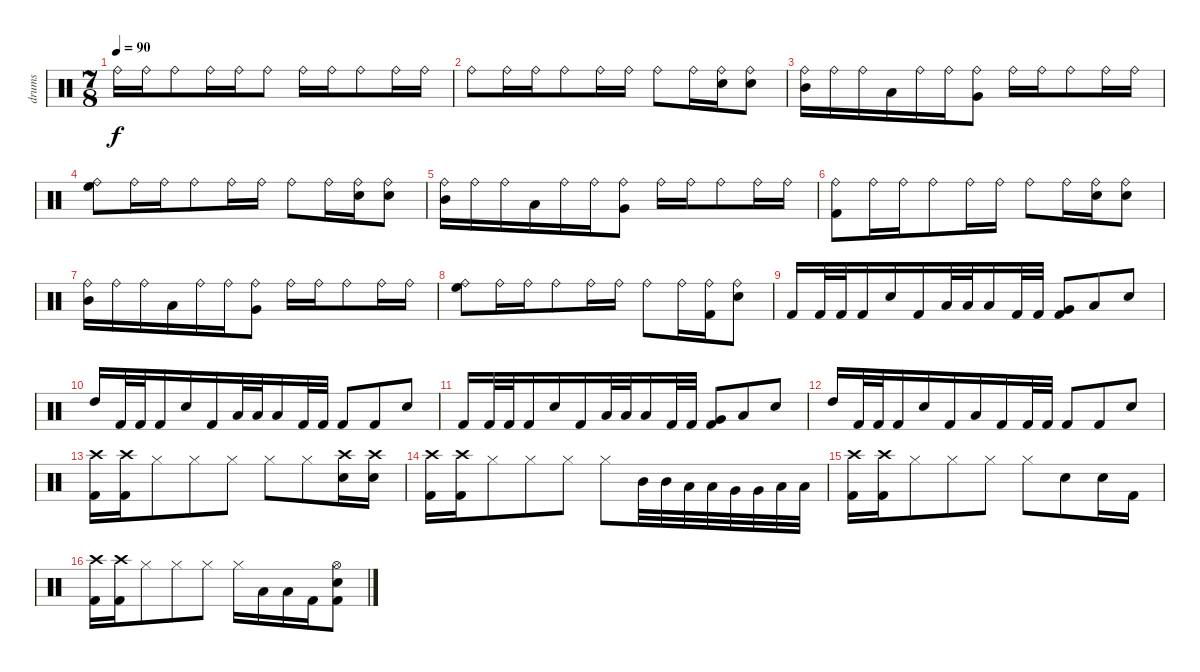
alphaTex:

\track ("drums" "drums") {instrument percussion}
\staff {score}
\articulation defaults
\ts (7 8)
\tempo 90
\clef neutral
\ks c "Ride (bell)".16{dy f} "Ride (bell)".16 "Ride (bell)".8 "Ride (bell)".16 "Ride (bell)".16 "Ride (bell)".8 "Ride (bell)".16 "Ride (bell)".16 "Ride (bell)".8 "Ride (bell)".16 "Ride (bell)".16
|
"Ride (bell)".8 "Ride (bell)".16 "Ride (bell)".16 "Ride (bell)".8 "Ride (bell)".16 "Ride (bell)".16 "Ride (bell)".8 "Ride (bell)".16 ("Ride (bell)" "Electric Snare (hit)").16 ("Ride (bell)" "Electric Snare (hit)").8 |
("Ride (bell)" "Mid Tom (hit)").16 "Ride (bell)".16 "Ride (bell)".16 "Low Tom (hit)".16 "Ride (bell)".16 "Ride (bell)".16 ("Ride (bell)" "Very Low Tom (hit)").8 "Ride (bell)".16 "Ride (bell)".16 "Ride (bell)".8 "Ride (bell)".16 "Ride (bell)".16 |
("Ride (bell)" "High Floor Tom (hit)").8 "Ride (bell)".16 "Ride (bell)".16 "Ride (bell)".8 "Ride (bell)".16 "Ride (bell)".16 "Ride (bell)".8 "Ride (bell)".16 ("Ride (bell)" "Electric Snare (hit)").16 ("Ride (bell)" "Electric Snare (hit)").8 |
("Ride (bell)" "Mid Tom (hit)").16 "Ride (bell)".16 "Ride (bell)".16 "Low Tom (hit)".16 "Ride (bell)".16 "Ride (bell)".16 ("Ride (bell)" "Very Low Tom (hit)").8 "Ride (bell)".16 "Ride (bell)".16 "Ride (bell)".8 "Ride (bell)".16 "Ride (bell)".16 |
("Ride (bell)" "Kick (hit) 2").8 "Ride (bell)".16 "Ride (bell)".16 "Ride (bell)".8 "Ride (bell)".16 "Ride (bell)".16 "Ride (bell)".8 "Ride (bell)".16 ("Ride (bell)" "Electric Snare (hit)").16 ("Ride (bell)" "Electric Snare (hit)").8 |
("Ride (bell)" "Mid Tom (hit)").16 "Ride (bell)".16 "Ride (bell)".16 "Low Tom (hit)".16 "Ride (bell)".16 "Ride (bell)".16 ("Ride (bell)" "Very Low Tom (hit)").8 "Ride (bell)".16 "Ride (bell)".16 "Ride (bell)".8 "Ride (bell)".16 "Ride (bell)".16 |
("Ride (bell)" "High Floor Tom (hit)").8 "Ride (bell)".16 "Ride (bell)".16 "Ride (bell)".8 "Ride (bell)".16 "Ride (bell)".16 "Ride (bell)".8 "Ride (bell)".16 ("Ride (bell)" "Kick (hit) 2").16 ("Ride (bell)" "Electric Snare (hit)").8 |
"Kick (hit) 2".16 "Kick (hit) 2".32 "Kick (hit) 2".32 "Kick (hit) 2".16 "Electric Snare (hit)".16 "Kick (hit) 2".16 "Low Tom (hit)".32 "Low Tom (hit)".32 "Low Tom (hit)".16 "Kick (hit) 2".32 "Kick (hit) 2".32 ("Very Low Tom (hit)" "Kick (hit) 2").8 "Low Floor Tom (hit)".8 "Electric Snare (hit)".8 |
"High Tom (hit)".16 "Kick (hit) 2".32 "Kick (hit) 2".32 "Kick (hit) 2".16 "Electric Snare (hit)".16 "Kick (hit) 2".16 "Low Tom (hit)".32 "Low Tom (hit)".32 "Low Tom (hit)".16 "Kick (hit) 2".32 "Kick (hit) 2".32 "Kick (hit) 2".8 "Kick (hit) 2".8 "Electric Snare (hit)".8 |
"Kick (hit) 2".16 "Kick (hit) 2".32 "Kick (hit) 2".32 "Kick (hit) 2".16 "Electric Snare (hit)".16 "Kick (hit) 2".16 "Low Tom (hit)".32 "Low Tom (hit)".32 "Low Tom (hit)".16 "Kick (hit) 2".32 "Kick (hit) 2".32 ("Very Low Tom (hit)" "Kick (hit) 2").8 "Low Floor Tom (hit)".8 "Electric Snare (hit)".8 |
"High Tom (hit)".16 "Kick (hit) 2".32 "Kick (hit) 2".32 "Kick (hit) 2".16 "Electric Snare (hit)".16 "Kick (hit) 2".16 "Low Tom (hit)".16 "Kick (hit) 2".16 "Kick (hit) 2".32 "Kick (hit) 2".32 "Kick (hit) 2".8 "Kick (hit) 2".8 "Electric Snare (hit)".8 |
("Crash high (hit)" "Kick (hit) 2").16 ("Crash high (hit)" "Kick (hit) 2").16 "Hi-Hat (closed)".8 "Hi-Hat (closed)".8 "Hi-Hat (closed)".8 "Hi-Hat (closed)".8 "Hi-Hat (closed)".8 ("Crash high (hit)" "Electric Snare (hit)").16 ("Crash high (hit)" "Electric Snare (hit)").16 |
("Crash high (hit)" "Kick (hit) 2").16 ("Crash high (hit)" "Kick (hit) 2").16 "Hi-Hat (closed)".8 "Hi-Hat (closed)".8 "Hi-Hat (closed)".8 "Hi-Hat (closed)".8 "Mid Tom (hit)".32 "Mid Tom (hit)".32 "Low Tom (hit)".32 "Low Tom (hit)".32 "Very Low Tom (hit)".32 "Very Low Tom (hit)".32 "Low Floor Tom (hit)".32 "Low Floor Tom (hit)".32 |
("Crash high (hit)" "Kick (hit) 2").16 ("Crash high (hit)" "Kick (hit) 2").16 "Hi-Hat (closed)".8 "Hi-Hat (closed)".8 "Hi-Hat (closed)".8 "Hi-Hat (closed)".8 "Electric Snare (hit)".8 "Electric Snare (hit)".16 "Kick (hit) 2".16 |
("Crash high (hit)" "Kick (hit) 2").16 ("Crash high (hit)" "Kick (hit) 2").16 "Hi-Hat (closed)".8 "Hi-Hat (closed)".8 "Hi-Hat (closed)".8 "Hi-Hat (closed)".16 "Low Tom (hit)".16 "Low Tom (hit)".16 "Kick (hit) 2".16 ("Hi-Hat (open)" "Electric Snare (hit)" "Kick (hit) 2").8
